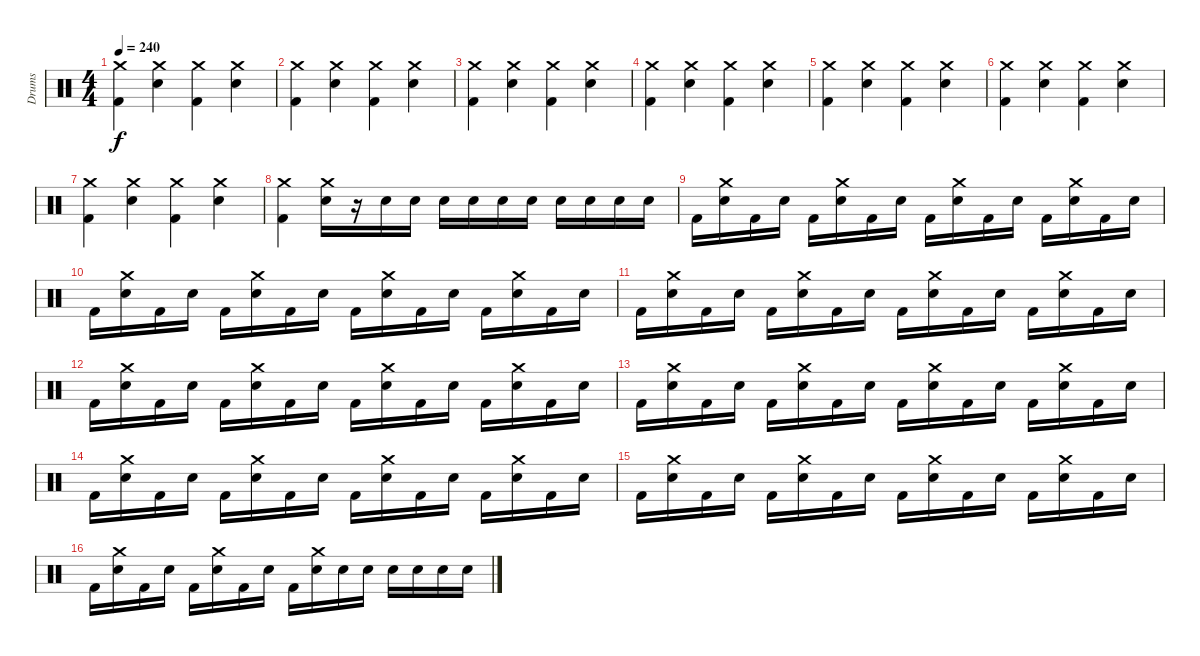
\track ("Drums" "Drums") {instrument percussion}
\staff {score}
\articulation defaults
\ts (4 4)
\tempo 240
\clef neutral
\ks c
("Crash medium (hit)" "Kick (hit) 2").4{dy f} ("Crash medium (hit)" "Electric Snare (hit)").4 ("Crash medium (hit)" "Kick (hit) 2").4 ("Crash medium (hit)" "Electric Snare (hit)").4 |
("Crash medium (hit)" "Kick (hit) 2").4 ("Crash medium (hit)" "Electric Snare (hit)").4 ("Crash medium (hit)" "Kick (hit) 2").4 ("Crash medium (hit)" "Electric Snare (hit)").4 |
("Crash medium (hit)" "Kick (hit) 2").4 ("Crash medium (hit)" "Electric Snare (hit)").4 ("Crash medium (hit)" "Kick (hit) 2").4 ("Crash medium (hit)" "Electric Snare (hit)").4 |
("Crash medium (hit)" "Kick (hit) 2").4 ("Crash medium (hit)" "Electric Snare (hit)").4 ("Crash medium (hit)" "Kick (hit) 2").4 ("Crash medium (hit)" "Electric Snare (hit)").4 |
("Crash medium (hit)" "Kick (hit) 2").4 ("Crash medium (hit)" "Electric Snare (hit)").4 ("Crash medium (hit)" "Kick (hit) 2").4 ("Crash medium (hit)" "Electric Snare (hit)").4 |
("Crash medium (hit)" "Kick (hit) 2").4 ("Crash medium (hit)" "Electric Snare (hit)").4 ("Crash medium (hit)" "Kick (hit) 2").4 ("Crash medium (hit)" "Electric Snare (hit)").4 |
("Crash medium (hit)" "Kick (hit) 2").4 ("Crash medium (hit)" "Electric Snare (hit)").4 ("Crash medium (hit)" "Kick (hit) 2").4 ("Crash medium (hit)" "Electric Snare (hit)").4 |
("Crash medium (hit)" "Kick (hit) 2").4 ("Crash medium (hit)" "Electric Snare (hit)").16 r.16 "Electric Snare (hit)".16 "Electric Snare (hit)".16 "Electric Snare (hit)".16 "Electric Snare (hit)".16 "Electric Snare (hit)".16 "Electric Snare (hit)".16 "Electric Snare (hit)".16 "Electric Snare (hit)".16 "Electric Snare (hit)".16 "Electric Snare (hit)".16 |
"Kick (hit) 2".16 ("Crash medium (hit)" "Electric Snare (hit)").16 "Kick (hit) 2".16 "Electric Snare (hit)".16 "Kick (hit) 2".16 ("Crash medium (hit)" "Electric Snare (hit)").16 "Kick (hit) 2".16 "Electric Snare (hit)".16 "Kick (hit) 2".16 ("Crash medium (hit)" "Electric Snare (hit)").16 "Kick (hit) 2".16 "Electric Snare (hit)".16 "Kick (hit) 2".16 ("Crash medium (hit)" "Electric Snare (hit)").16 "Kick (hit) 2".16 "Electric Snare (hit)".16 |
"Kick (hit) 2".16 ("Crash medium (hit)" "Electric Snare (hit)").16 "Kick (hit) 2".16 "Electric Snare (hit)".16 "Kick (hit) 2".16 ("Crash medium (hit)" "Electric Snare (hit)").16 "Kick (hit) 2".16 "Electric Snare (hit)".16 "Kick (hit) 2".16 ("Crash medium (hit)" "Electric Snare (hit)").16 "Kick (hit) 2".16 "Electric Snare (hit)".16 "Kick (hit) 2".16 ("Crash medium (hit)" "Electric Snare (hit)").16 "Kick (hit) 2".16 "Electric Snare (hit)".16 |
"Kick (hit) 2".16 ("Crash medium (hit)" "Electric Snare (hit)").16 "Kick (hit) 2".16 "Electric Snare (hit)".16 "Kick (hit) 2".16 ("Crash medium (hit)" "Electric Snare (hit)").16 "Kick (hit) 2".16 "Electric Snare (hit)".16 "Kick (hit) 2".16 ("Crash medium (hit)" "Electric Snare (hit)").16 "Kick (hit) 2".16 "Electric Snare (hit)".16 "Kick (hit) 2".16 ("Crash medium (hit)" "Electric Snare (hit)").16 "Kick (hit) 2".16 "Electric Snare (hit)".16 |
"Kick (hit) 2".16 ("Crash medium (hit)" "Electric Snare (hit)").16 "Kick (hit) 2".16 "Electric Snare (hit)".16 "Kick (hit) 2".16 ("Crash medium (hit)" "Electric Snare (hit)").16 "Kick (hit) 2".16 "Electric Snare (hit)".16 "Kick (hit) 2".16 ("Crash medium (hit)" "Electric Snare (hit)").16 "Kick (hit) 2".16 "Electric Snare (hit)".16 "Kick (hit) 2".16 ("Crash medium (hit)" "Electric Snare (hit)").16 "Kick (hit) 2".16 "Electric Snare (hit)".16 |
"Kick (hit) 2".16 ("Crash medium (hit)" "Electric Snare (hit)").16 "Kick (hit) 2".16 "Electric Snare (hit)".16 "Kick (hit) 2".16 ("Crash medium (hit)" "Electric Snare (hit)").16 "Kick (hit) 2".16 "Electric Snare (hit)".16 "Kick (hit) 2".16 ("Crash medium (hit)" "Electric Snare (hit)").16 "Kick (hit) 2".16 "Electric Snare (hit)".16 "Kick (hit) 2".16 ("Crash medium (hit)" "Electric Snare (hit)").16 "Kick (hit) 2".16 "Electric Snare (hit)".16 |
"Kick (hit) 2".16 ("Crash medium (hit)" "Electric Snare (hit)").16 "Kick (hit) 2".16 "Electric Snare (hit)".16 "Kick (hit) 2".16 ("Crash medium (hit)" "Electric Snare (hit)").16 "Kick (hit) 2".16 "Electric Snare (hit)".16 "Kick (hit) 2".16 ("Crash medium (hit)" "Electric Snare (hit)").16 "Kick (hit) 2".16 "Electric Snare (hit)".16 "Kick (hit) 2".16 ("Crash medium (hit)" "Electric Snare (hit)").16 "Kick (hit) 2".16 "Electric Snare (hit)".16 |
"Kick (hit) 2".16 ("Crash medium (hit)" "Electric Snare (hit)").16 "Kick (hit) 2".16 "Electric Snare (hit)".16 "Kick (hit) 2".16 ("Crash medium (hit)" "Electric Snare (hit)").16 "Kick (hit) 2".16 "Electric Snare (hit)".16 "Kick (hit) 2".16 ("Crash medium (hit)" "Electric Snare (hit)").16 "Kick (hit) 2".16 "Electric Snare (hit)".16 "Kick (hit) 2".16 ("Crash medium (hit)" "Electric Snare (hit)").16 "Kick (hit) 2".16 "Electric Snare (hit)".16 |
"Kick (hit) 2".16 ("Crash medium (hit)" "Electric Snare (hit)").16 "Kick (hit) 2".16 "Electric Snare (hit)".16 "Kick (hit) 2".16 ("Crash medium (hit)" "Electric Snare (hit)").16 "Kick (hit) 2".16 "Electric Snare (hit)".16 "Kick (hit) 2".16 ("Crash medium (hit)" "Electric Snare (hit)").16 "Electric Snare (hit)".16 "Electric Snare (hit)".16 "Electric Snare (hit)".16 "Electric Snare (hit)".16 "Electric Snare (hit)".16 "Electric Snare (hit)".16
